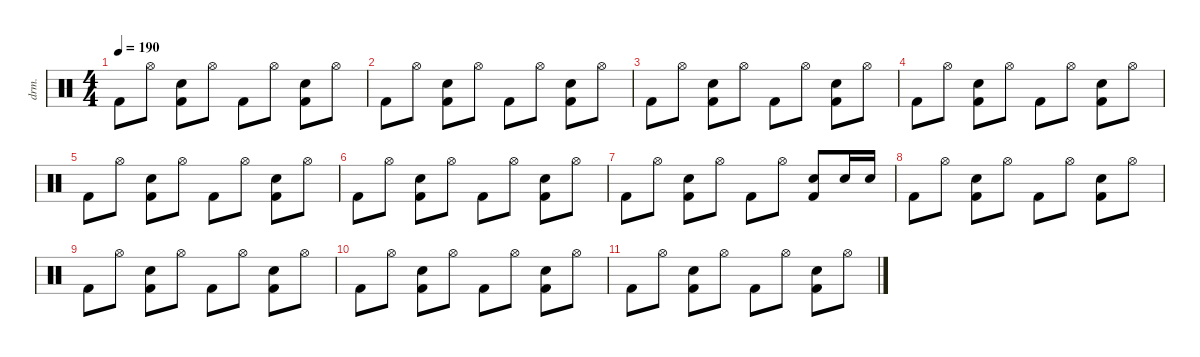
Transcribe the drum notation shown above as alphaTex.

\defaultSystemsLayout 4
\hideDynamics
\bracketExtendMode nobrackets
\track ("伊地知虹夏" "drm.") {solo instrument percussion}
\staff {score}
\articulation defaults
\ts (4 4)
\tempo 190
\clef neutral
\ks c "Kick (hit) 2".8{dy mf} "Hi-Hat (open)".8
("Snare (hit) 2" "Kick (hit) 2").8 "Hi-Hat (open)".8 "Kick (hit) 2".8 "Hi-Hat (open)".8 ("Kick (hit) 2" "Snare (hit) 2").8 "Hi-Hat (open)".8 |
"Kick (hit) 2".8 "Hi-Hat (open)".8 ("Snare (hit) 2" "Kick (hit) 2").8 "Hi-Hat (open)".8 "Kick (hit) 2".8 "Hi-Hat (open)".8 ("Kick (hit) 2" "Snare (hit) 2").8 "Hi-Hat (open)".8 |
"Kick (hit) 2".8 "Hi-Hat (open)".8 ("Snare (hit) 2" "Kick (hit) 2").8 "Hi-Hat (open)".8 "Kick (hit) 2".8 "Hi-Hat (open)".8 ("Kick (hit) 2" "Snare (hit) 2").8 "Hi-Hat (open)".8 |
"Kick (hit) 2".8 "Hi-Hat (open)".8 ("Snare (hit) 2" "Kick (hit) 2").8 "Hi-Hat (open)".8 "Kick (hit) 2".8 "Hi-Hat (open)".8 ("Kick (hit) 2" "Snare (hit) 2").8 "Hi-Hat (open)".8 |
"Kick (hit) 2".8 "Hi-Hat (open)".8 ("Snare (hit) 2" "Kick (hit) 2").8 "Hi-Hat (open)".8 "Kick (hit) 2".8 "Hi-Hat (open)".8 ("Kick (hit) 2" "Snare (hit) 2").8 "Hi-Hat (open)".8 |
"Kick (hit) 2".8 "Hi-Hat (open)".8 ("Snare (hit) 2" "Kick (hit) 2").8 "Hi-Hat (open)".8 "Kick (hit) 2".8 "Hi-Hat (open)".8 ("Kick (hit) 2" "Snare (hit) 2").8 "Hi-Hat (open)".8 |
"Kick (hit) 2".8 "Hi-Hat (open)".8 ("Snare (hit) 2" "Kick (hit) 2").8 "Hi-Hat (open)".8 "Kick (hit) 2".8 "Hi-Hat (open)".8 ("Kick (hit) 2" "Snare (hit) 2").8 "Snare (hit) 2".16 "Snare (hit) 2".16 |
"Kick (hit) 2".8 "Hi-Hat (open)".8 ("Snare (hit) 2" "Kick (hit) 2").8 "Hi-Hat (open)".8 "Kick (hit) 2".8 "Hi-Hat (open)".8 ("Kick (hit) 2" "Snare (hit) 2").8 "Hi-Hat (open)".8 |
"Kick (hit) 2".8 "Hi-Hat (open)".8 ("Snare (hit) 2" "Kick (hit) 2").8 "Hi-Hat (open)".8 "Kick (hit) 2".8 "Hi-Hat (open)".8 ("Kick (hit) 2" "Snare (hit) 2").8 "Hi-Hat (open)".8 |
"Kick (hit) 2".8 "Hi-Hat (open)".8 ("Snare (hit) 2" "Kick (hit) 2").8 "Hi-Hat (open)".8 "Kick (hit) 2".8 "Hi-Hat (open)".8 ("Kick (hit) 2" "Snare (hit) 2").8 "Hi-Hat (open)".8 |
"Kick (hit) 2".8 "Hi-Hat (open)".8 ("Snare (hit) 2" "Kick (hit) 2").8 "Hi-Hat (open)".8 "Kick (hit) 2".8 "Hi-Hat (open)".8 ("Kick (hit) 2" "Snare (hit) 2").8 "Hi-Hat (open)".8
